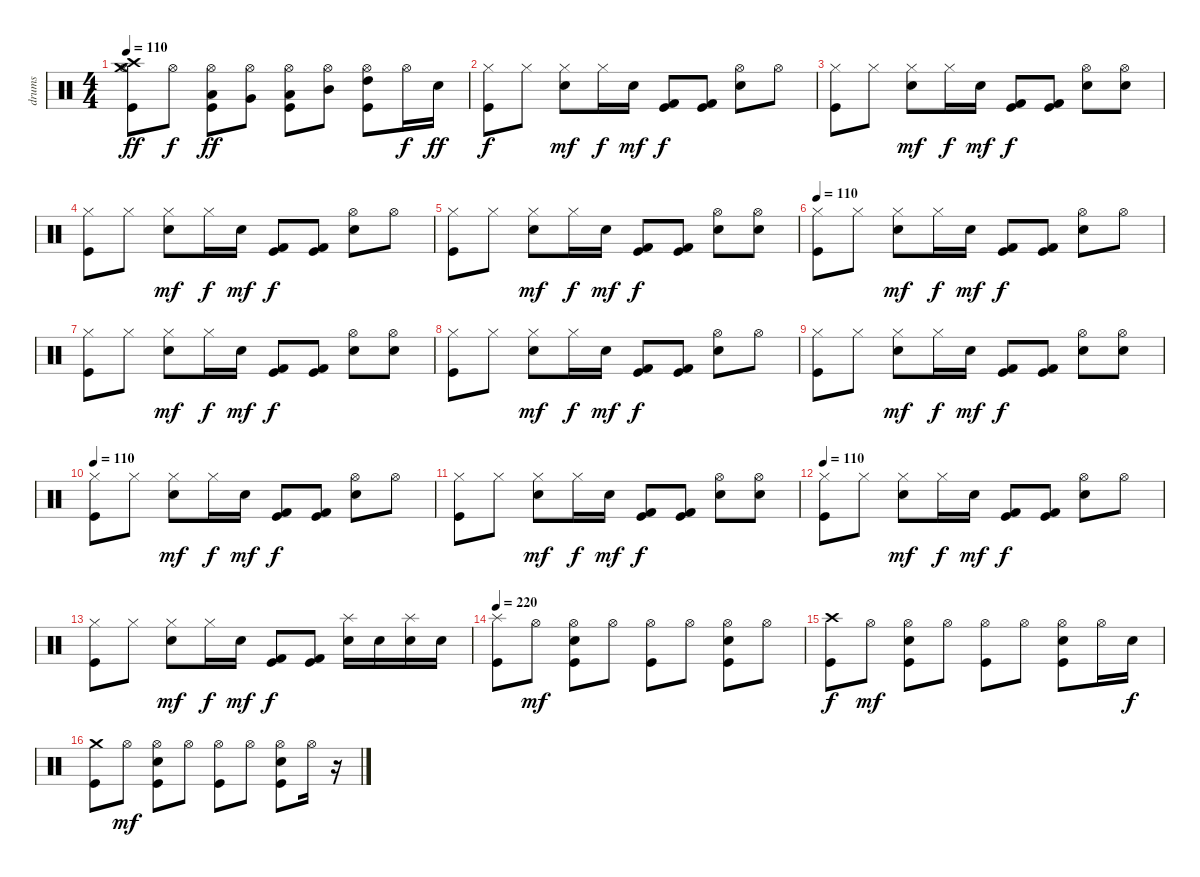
\track ("drums" "drums") {instrument percussion}
\staff {score}
\articulation defaults
\ts (4 4)
\tempo 110
\clef neutral
\ks c
("Hi-Hat (open)" "Crash high (hit)" "Crash medium (hit)" "Kick (hit)").8{dy ff} "Hi-Hat (open)".8{dy f} ("Hi-Hat (open)" "Low Floor Tom (hit)" "Kick (hit)").8{dy ff} ("Hi-Hat (open)" "Very Low Tom (hit)").8 ("Hi-Hat (open)" "Low Tom (hit)" "Kick (hit)").8 ("Hi-Hat (open)" "Mid Tom (hit)").8 ("Hi-Hat (open)" "High Tom (hit)" "Kick (hit)").8 "Hi-Hat (open)".16{dy f} "Electric Snare (hit)".16{dy ff} |
("Hi-Hat (closed)" "Kick (hit)").8{dy f} "Hi-Hat (closed)".8 ("Hi-Hat (closed)" "Electric Snare (hit)").8{dy mf} "Hi-Hat (closed)".16{dy f} "Electric Snare (hit)".16{dy mf} ("Kick (hit) 2" "Kick (hit)").8{dy f} ("Kick (hit)" "Kick (hit) 2").8 ("Hi-Hat (open)" "Electric Snare (hit)").8 "Hi-Hat (open)".8 |
("Hi-Hat (closed)" "Kick (hit)").8 "Hi-Hat (closed)".8 ("Hi-Hat (closed)" "Electric Snare (hit)").8{dy mf} "Hi-Hat (closed)".16{dy f} "Electric Snare (hit)".16{dy mf} ("Kick (hit) 2" "Kick (hit)").8{dy f} ("Kick (hit)" "Kick (hit) 2").8 ("Hi-Hat (open)" "Electric Snare (hit)").8 ("Hi-Hat (open)" "Electric Snare (hit)").8 |
("Hi-Hat (closed)" "Kick (hit)").8 "Hi-Hat (closed)".8 ("Hi-Hat (closed)" "Electric Snare (hit)").8{dy mf} "Hi-Hat (closed)".16{dy f} "Electric Snare (hit)".16{dy mf} ("Kick (hit) 2" "Kick (hit)").8{dy f} ("Kick (hit)" "Kick (hit) 2").8 ("Hi-Hat (open)" "Electric Snare (hit)").8 "Hi-Hat (open)".8 |
("Hi-Hat (closed)" "Kick (hit)").8 "Hi-Hat (closed)".8 ("Hi-Hat (closed)" "Electric Snare (hit)").8{dy mf} "Hi-Hat (closed)".16{dy f} "Electric Snare (hit)".16{dy mf} ("Kick (hit) 2" "Kick (hit)").8{dy f} ("Kick (hit)" "Kick (hit) 2").8 ("Hi-Hat (open)" "Electric Snare (hit)").8 ("Hi-Hat (open)" "Electric Snare (hit)").8 |
\tempo 110
("Hi-Hat (closed)" "Kick (hit)").8 "Hi-Hat (closed)".8 ("Hi-Hat (closed)" "Electric Snare (hit)").8{dy mf} "Hi-Hat (closed)".16{dy f} "Electric Snare (hit)".16{dy mf} ("Kick (hit) 2" "Kick (hit)").8{dy f} ("Kick (hit)" "Kick (hit) 2").8 ("Hi-Hat (open)" "Electric Snare (hit)").8 "Hi-Hat (open)".8 |
("Hi-Hat (closed)" "Kick (hit)").8 "Hi-Hat (closed)".8 ("Hi-Hat (closed)" "Electric Snare (hit)").8{dy mf} "Hi-Hat (closed)".16{dy f} "Electric Snare (hit)".16{dy mf} ("Kick (hit) 2" "Kick (hit)").8{dy f} ("Kick (hit)" "Kick (hit) 2").8 ("Hi-Hat (open)" "Electric Snare (hit)").8 ("Hi-Hat (open)" "Electric Snare (hit)").8 |
("Hi-Hat (closed)" "Kick (hit)").8 "Hi-Hat (closed)".8 ("Hi-Hat (closed)" "Electric Snare (hit)").8{dy mf} "Hi-Hat (closed)".16{dy f} "Electric Snare (hit)".16{dy mf} ("Kick (hit) 2" "Kick (hit)").8{dy f} ("Kick (hit)" "Kick (hit) 2").8 ("Hi-Hat (open)" "Electric Snare (hit)").8 "Hi-Hat (open)".8 |
("Hi-Hat (closed)" "Kick (hit)").8 "Hi-Hat (closed)".8 ("Hi-Hat (closed)" "Electric Snare (hit)").8{dy mf} "Hi-Hat (closed)".16{dy f} "Electric Snare (hit)".16{dy mf} ("Kick (hit) 2" "Kick (hit)").8{dy f} ("Kick (hit)" "Kick (hit) 2").8 ("Hi-Hat (open)" "Electric Snare (hit)").8 ("Hi-Hat (open)" "Electric Snare (hit)").8 |
\tempo 110
("Hi-Hat (closed)" "Kick (hit)").8 "Hi-Hat (closed)".8 ("Hi-Hat (closed)" "Electric Snare (hit)").8{dy mf} "Hi-Hat (closed)".16{dy f} "Electric Snare (hit)".16{dy mf} ("Kick (hit) 2" "Kick (hit)").8{dy f} ("Kick (hit)" "Kick (hit) 2").8 ("Hi-Hat (open)" "Electric Snare (hit)").8 "Hi-Hat (open)".8 |
("Hi-Hat (closed)" "Kick (hit)").8 "Hi-Hat (closed)".8 ("Hi-Hat (closed)" "Electric Snare (hit)").8{dy mf} "Hi-Hat (closed)".16{dy f} "Electric Snare (hit)".16{dy mf} ("Kick (hit) 2" "Kick (hit)").8{dy f} ("Kick (hit)" "Kick (hit) 2").8 ("Hi-Hat (open)" "Electric Snare (hit)").8 ("Hi-Hat (open)" "Electric Snare (hit)").8 |
\tempo 110
("Hi-Hat (closed)" "Kick (hit)").8 "Hi-Hat (closed)".8 ("Hi-Hat (closed)" "Electric Snare (hit)").8{dy mf} "Hi-Hat (closed)".16{dy f} "Electric Snare (hit)".16{dy mf} ("Kick (hit) 2" "Kick (hit)").8{dy f} ("Kick (hit)" "Kick (hit) 2").8 ("Hi-Hat (open)" "Electric Snare (hit)").8 "Hi-Hat (open)".8 |
("Hi-Hat (closed)" "Kick (hit)").8 "Hi-Hat (closed)".8 ("Hi-Hat (closed)" "Electric Snare (hit)").8{dy mf} "Hi-Hat (closed)".16{dy f} "Electric Snare (hit)".16{dy mf} ("Kick (hit) 2" "Kick (hit)").8{dy f} ("Kick (hit)" "Kick (hit) 2").8 ("Splash (hit)" "Electric Snare (hit)").16 "Electric Snare (hit)".16 ("Splash (hit)" "Electric Snare (hit)").16 "Electric Snare (hit)".16 |
\tempo 220
("Splash (hit)" "Kick (hit)").8 "Hi-Hat (open)".8{dy mf} ("Hi-Hat (open)" "Electric Snare (hit)" "Kick (hit)").8 "Hi-Hat (open)".8 ("Hi-Hat (open)" "Kick (hit)").8 "Hi-Hat (open)".8 ("Hi-Hat (open)" "Electric Snare (hit)" "Kick (hit)").8 "Hi-Hat (open)".8 |
("Crash high (hit)" "Kick (hit)").8{dy f} "Hi-Hat (open)".8{dy mf} ("Hi-Hat (open)" "Electric Snare (hit)" "Kick (hit)").8 "Hi-Hat (open)".8 ("Hi-Hat (open)" "Kick (hit)").8 "Hi-Hat (open)".8 ("Hi-Hat (open)" "Electric Snare (hit)" "Kick (hit)").8 "Hi-Hat (open)".16 "Electric Snare (hit)".16{dy f} |
("Crash medium (hit)" "Kick (hit)").8 "Hi-Hat (open)".8{dy mf} ("Hi-Hat (open)" "Electric Snare (hit)" "Kick (hit)").8 "Hi-Hat (open)".8 ("Hi-Hat (open)" "Kick (hit)").8 "Hi-Hat (open)".8 ("Hi-Hat (open)" "Electric Snare (hit)" "Kick (hit)").8 "Hi-Hat (open)".16 r.16
